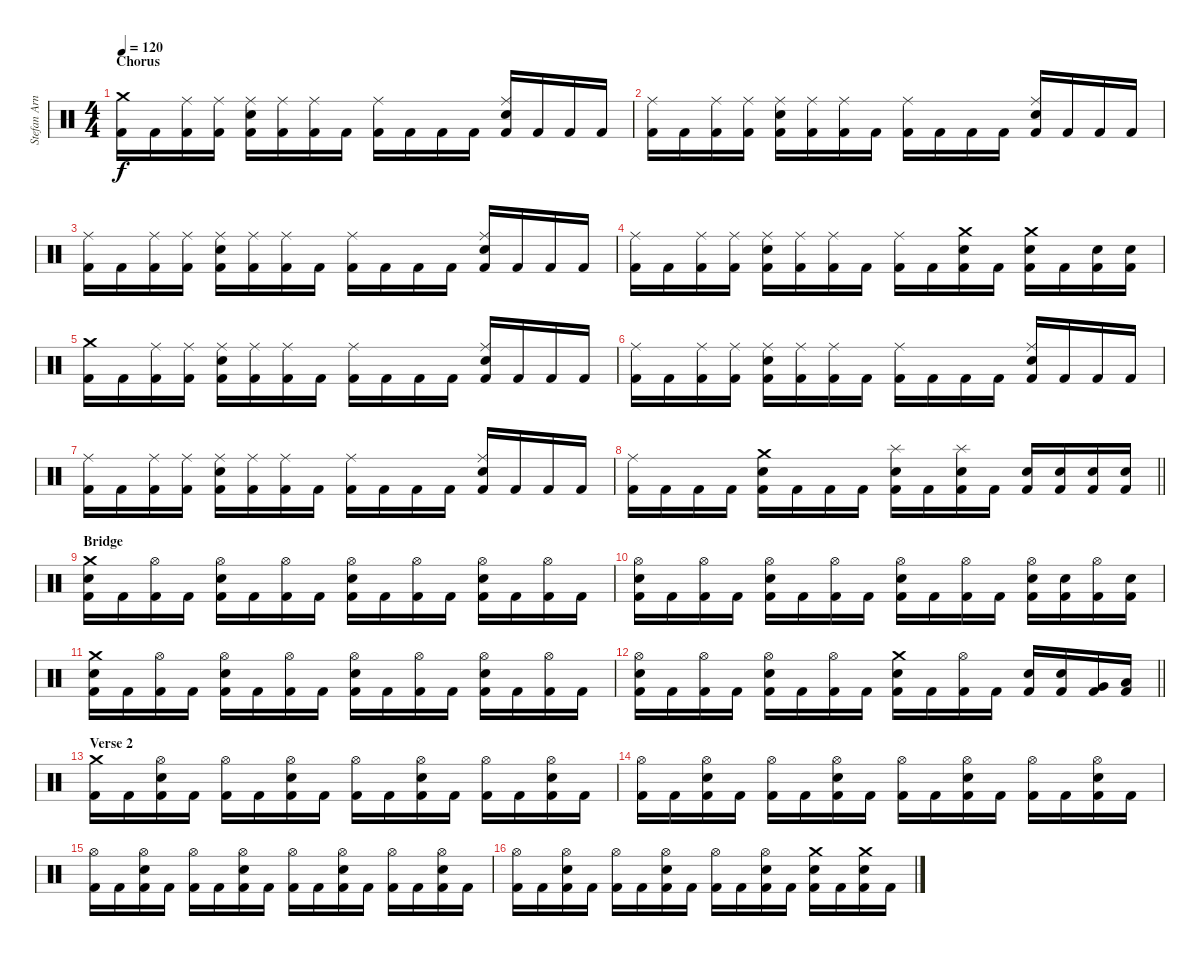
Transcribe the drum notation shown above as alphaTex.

\track ("Stefan Arnold" "Stefan Arn") {instrument percussion}
\staff {score}
\articulation defaults
\ts (4 4)
\section ("" "Chorus")
\tempo 120
\clef neutral
\ks c
("Crash medium (hit)" "Kick (hit) 2").16{dy f} "Kick (hit) 2".16 ("Ride (middle)" "Kick (hit) 2").16 ("Ride (middle)" "Kick (hit) 2").16 ("Ride (middle)" "Electric Snare (hit)" "Kick (hit) 2").16 ("Ride (middle)" "Kick (hit) 2").16 ("Ride (middle)" "Kick (hit) 2").16 "Kick (hit) 2".16 ("Ride (middle)" "Kick (hit) 2").16 "Kick (hit) 2".16 "Kick (hit) 2".16 "Kick (hit) 2".16 ("Ride (middle)" "Electric Snare (hit)" "Kick (hit) 2").16 "Kick (hit) 2".16 "Kick (hit) 2".16 "Kick (hit) 2".16 |
("Ride (middle)" "Kick (hit) 2").16 "Kick (hit) 2".16 ("Ride (middle)" "Kick (hit) 2").16 ("Ride (middle)" "Kick (hit) 2").16 ("Ride (middle)" "Electric Snare (hit)" "Kick (hit) 2").16 ("Ride (middle)" "Kick (hit) 2").16 ("Ride (middle)" "Kick (hit) 2").16 "Kick (hit) 2".16 ("Ride (middle)" "Kick (hit) 2").16 "Kick (hit) 2".16 "Kick (hit) 2".16 "Kick (hit) 2".16 ("Ride (middle)" "Electric Snare (hit)" "Kick (hit) 2").16 "Kick (hit) 2".16 "Kick (hit) 2".16 "Kick (hit) 2".16 |
("Ride (middle)" "Kick (hit) 2").16 "Kick (hit) 2".16 ("Ride (middle)" "Kick (hit) 2").16 ("Ride (middle)" "Kick (hit) 2").16 ("Ride (middle)" "Electric Snare (hit)" "Kick (hit) 2").16 ("Ride (middle)" "Kick (hit) 2").16 ("Ride (middle)" "Kick (hit) 2").16 "Kick (hit) 2".16 ("Ride (middle)" "Kick (hit) 2").16 "Kick (hit) 2".16 "Kick (hit) 2".16 "Kick (hit) 2".16 ("Ride (middle)" "Electric Snare (hit)" "Kick (hit) 2").16 "Kick (hit) 2".16 "Kick (hit) 2".16 "Kick (hit) 2".16 |
("Ride (middle)" "Kick (hit) 2").16 "Kick (hit) 2".16 ("Ride (middle)" "Kick (hit) 2").16 ("Ride (middle)" "Kick (hit) 2").16 ("Ride (middle)" "Electric Snare (hit)" "Kick (hit) 2").16 ("Ride (middle)" "Kick (hit) 2").16 ("Ride (middle)" "Kick (hit) 2").16 "Kick (hit) 2".16 ("Ride (middle)" "Kick (hit) 2").16 "Kick (hit) 2".16 ("Crash medium (hit)" "Electric Snare (hit)" "Kick (hit) 2").16 "Kick (hit) 2".16 ("Crash medium (hit)" "Electric Snare (hit)" "Kick (hit) 2").16 "Kick (hit) 2".16 ("Electric Snare (hit)" "Kick (hit) 2").16 ("Electric Snare (hit)" "Kick (hit) 2").16 |
("Crash medium (hit)" "Kick (hit) 2").16 "Kick (hit) 2".16 ("Ride (middle)" "Kick (hit) 2").16 ("Ride (middle)" "Kick (hit) 2").16 ("Ride (middle)" "Electric Snare (hit)" "Kick (hit) 2").16 ("Ride (middle)" "Kick (hit) 2").16 ("Ride (middle)" "Kick (hit) 2").16 "Kick (hit) 2".16 ("Ride (middle)" "Kick (hit) 2").16 "Kick (hit) 2".16 "Kick (hit) 2".16 "Kick (hit) 2".16 ("Ride (middle)" "Electric Snare (hit)" "Kick (hit) 2").16 "Kick (hit) 2".16 "Kick (hit) 2".16 "Kick (hit) 2".16 |
("Ride (middle)" "Kick (hit) 2").16 "Kick (hit) 2".16 ("Ride (middle)" "Kick (hit) 2").16 ("Ride (middle)" "Kick (hit) 2").16 ("Ride (middle)" "Electric Snare (hit)" "Kick (hit) 2").16 ("Ride (middle)" "Kick (hit) 2").16 ("Ride (middle)" "Kick (hit) 2").16 "Kick (hit) 2".16 ("Ride (middle)" "Kick (hit) 2").16 "Kick (hit) 2".16 "Kick (hit) 2".16 "Kick (hit) 2".16 ("Ride (middle)" "Electric Snare (hit)" "Kick (hit) 2").16 "Kick (hit) 2".16 "Kick (hit) 2".16 "Kick (hit) 2".16 |
("Ride (middle)" "Kick (hit) 2").16 "Kick (hit) 2".16 ("Ride (middle)" "Kick (hit) 2").16 ("Ride (middle)" "Kick (hit) 2").16 ("Ride (middle)" "Electric Snare (hit)" "Kick (hit) 2").16 ("Ride (middle)" "Kick (hit) 2").16 ("Ride (middle)" "Kick (hit) 2").16 "Kick (hit) 2".16 ("Ride (middle)" "Kick (hit) 2").16 "Kick (hit) 2".16 "Kick (hit) 2".16 "Kick (hit) 2".16 ("Ride (middle)" "Electric Snare (hit)" "Kick (hit) 2").16 "Kick (hit) 2".16 "Kick (hit) 2".16 "Kick (hit) 2".16 |
\barLineRight lightlight
("Ride (middle)" "Kick (hit) 2").16 "Kick (hit) 2".16 "Kick (hit) 2".16 "Kick (hit) 2".16 ("Crash medium (hit)" "Electric Snare (hit)" "Kick (hit) 2").16 "Kick (hit) 2".16 "Kick (hit) 2".16 "Kick (hit) 2".16 ("Splash (hit)" "Electric Snare (hit)" "Kick (hit) 2").16 "Kick (hit) 2".16 ("Splash (hit)" "Electric Snare (hit)" "Kick (hit) 2").16 "Kick (hit) 2".16 ("Electric Snare (hit)" "Kick (hit) 2").16 ("Electric Snare (hit)" "Kick (hit) 2").16 ("Electric Snare (hit)" "Kick (hit) 2").16 ("Electric Snare (hit)" "Kick (hit) 2").16 |
\section ("" "Bridge")
("Crash medium (hit)" "Electric Snare (hit)" "Kick (hit) 2").16 "Kick (hit) 2".16 ("Hi-Hat (open)" "Kick (hit) 2").16 "Kick (hit) 2".16 ("Hi-Hat (open)" "Electric Snare (hit)" "Kick (hit) 2").16 "Kick (hit) 2".16 ("Hi-Hat (open)" "Kick (hit) 2").16 "Kick (hit) 2".16 ("Hi-Hat (open)" "Electric Snare (hit)" "Kick (hit) 2").16 "Kick (hit) 2".16 ("Hi-Hat (open)" "Kick (hit) 2").16 "Kick (hit) 2".16 ("Hi-Hat (open)" "Electric Snare (hit)" "Kick (hit) 2").16 "Kick (hit) 2".16 ("Hi-Hat (open)" "Kick (hit) 2").16 "Kick (hit) 2".16 |
("Hi-Hat (open)" "Electric Snare (hit)" "Kick (hit) 2").16 "Kick (hit) 2".16 ("Hi-Hat (open)" "Kick (hit) 2").16 "Kick (hit) 2".16 ("Hi-Hat (open)" "Electric Snare (hit)" "Kick (hit) 2").16 "Kick (hit) 2".16 ("Hi-Hat (open)" "Kick (hit) 2").16 "Kick (hit) 2".16 ("Hi-Hat (open)" "Electric Snare (hit)" "Kick (hit) 2").16 "Kick (hit) 2".16 ("Hi-Hat (open)" "Kick (hit) 2").16 "Kick (hit) 2".16 ("Hi-Hat (open)" "Electric Snare (hit)" "Kick (hit) 2").16 ("Electric Snare (hit)" "Kick (hit) 2").16 ("Hi-Hat (open)" "Kick (hit) 2").16 ("Electric Snare (hit)" "Kick (hit) 2").16 |
("Crash medium (hit)" "Electric Snare (hit)" "Kick (hit) 2").16 "Kick (hit) 2".16 ("Hi-Hat (open)" "Kick (hit) 2").16 "Kick (hit) 2".16 ("Hi-Hat (open)" "Electric Snare (hit)" "Kick (hit) 2").16 "Kick (hit) 2".16 ("Hi-Hat (open)" "Kick (hit) 2").16 "Kick (hit) 2".16 ("Hi-Hat (open)" "Electric Snare (hit)" "Kick (hit) 2").16 "Kick (hit) 2".16 ("Hi-Hat (open)" "Kick (hit) 2").16 "Kick (hit) 2".16 ("Hi-Hat (open)" "Electric Snare (hit)" "Kick (hit) 2").16 "Kick (hit) 2".16 ("Hi-Hat (open)" "Kick (hit) 2").16 "Kick (hit) 2".16 |
\barLineRight lightlight
("Hi-Hat (open)" "Electric Snare (hit)" "Kick (hit) 2").16 "Kick (hit) 2".16 ("Hi-Hat (open)" "Kick (hit) 2").16 "Kick (hit) 2".16 ("Hi-Hat (open)" "Electric Snare (hit)" "Kick (hit) 2").16 "Kick (hit) 2".16 ("Hi-Hat (open)" "Kick (hit) 2").16 "Kick (hit) 2".16 ("Crash medium (hit)" "Electric Snare (hit)" "Kick (hit) 2").16 "Kick (hit) 2".16 ("Hi-Hat (open)" "Kick (hit) 2").16 "Kick (hit) 2".16 ("Electric Snare (hit)" "Kick (hit) 2").16 ("Electric Snare (hit)" "Kick (hit) 2").16 ("Very Low Tom (hit)" "Kick (hit) 2").16 ("Low Floor Tom (hit)" "Kick (hit) 2").16 |
\section ("" "Verse 2")
("Crash medium (hit)" "Kick (hit) 2").16 "Kick (hit) 2".16 ("Hi-Hat (open)" "Electric Snare (hit)" "Kick (hit) 2").16 "Kick (hit) 2".16 ("Hi-Hat (open)" "Kick (hit) 2").16 "Kick (hit) 2".16 ("Hi-Hat (open)" "Electric Snare (hit)" "Kick (hit) 2").16 "Kick (hit) 2".16 ("Hi-Hat (open)" "Kick (hit) 2").16 "Kick (hit) 2".16 ("Hi-Hat (open)" "Electric Snare (hit)" "Kick (hit) 2").16 "Kick (hit) 2".16 ("Hi-Hat (open)" "Kick (hit) 2").16 "Kick (hit) 2".16 ("Hi-Hat (open)" "Electric Snare (hit)" "Kick (hit) 2").16 "Kick (hit) 2".16 |
("Hi-Hat (open)" "Kick (hit) 2").16 "Kick (hit) 2".16 ("Hi-Hat (open)" "Electric Snare (hit)" "Kick (hit) 2").16 "Kick (hit) 2".16 ("Hi-Hat (open)" "Kick (hit) 2").16 "Kick (hit) 2".16 ("Hi-Hat (open)" "Electric Snare (hit)" "Kick (hit) 2").16 "Kick (hit) 2".16 ("Hi-Hat (open)" "Kick (hit) 2").16 "Kick (hit) 2".16 ("Hi-Hat (open)" "Electric Snare (hit)" "Kick (hit) 2").16 "Kick (hit) 2".16 ("Hi-Hat (open)" "Kick (hit) 2").16 "Kick (hit) 2".16 ("Hi-Hat (open)" "Electric Snare (hit)" "Kick (hit) 2").16 "Kick (hit) 2".16 |
("Hi-Hat (open)" "Kick (hit) 2").16 "Kick (hit) 2".16 ("Hi-Hat (open)" "Electric Snare (hit)" "Kick (hit) 2").16 "Kick (hit) 2".16 ("Hi-Hat (open)" "Kick (hit) 2").16 "Kick (hit) 2".16 ("Hi-Hat (open)" "Electric Snare (hit)" "Kick (hit) 2").16 "Kick (hit) 2".16 ("Hi-Hat (open)" "Kick (hit) 2").16 "Kick (hit) 2".16 ("Hi-Hat (open)" "Electric Snare (hit)" "Kick (hit) 2").16 "Kick (hit) 2".16 ("Hi-Hat (open)" "Kick (hit) 2").16 "Kick (hit) 2".16 ("Hi-Hat (open)" "Electric Snare (hit)" "Kick (hit) 2").16 "Kick (hit) 2".16 |
("Hi-Hat (open)" "Kick (hit) 2").16 "Kick (hit) 2".16 ("Hi-Hat (open)" "Electric Snare (hit)" "Kick (hit) 2").16 "Kick (hit) 2".16 ("Hi-Hat (open)" "Kick (hit) 2").16 "Kick (hit) 2".16 ("Hi-Hat (open)" "Electric Snare (hit)" "Kick (hit) 2").16 "Kick (hit) 2".16 ("Hi-Hat (open)" "Kick (hit) 2").16 "Kick (hit) 2".16 ("Hi-Hat (open)" "Electric Snare (hit)" "Kick (hit) 2").16 "Kick (hit) 2".16 ("Crash medium (hit)" "Electric Snare (hit)" "Kick (hit) 2").16 "Kick (hit) 2".16 ("Crash medium (hit)" "Electric Snare (hit)" "Kick (hit) 2").16 "Kick (hit) 2".16
